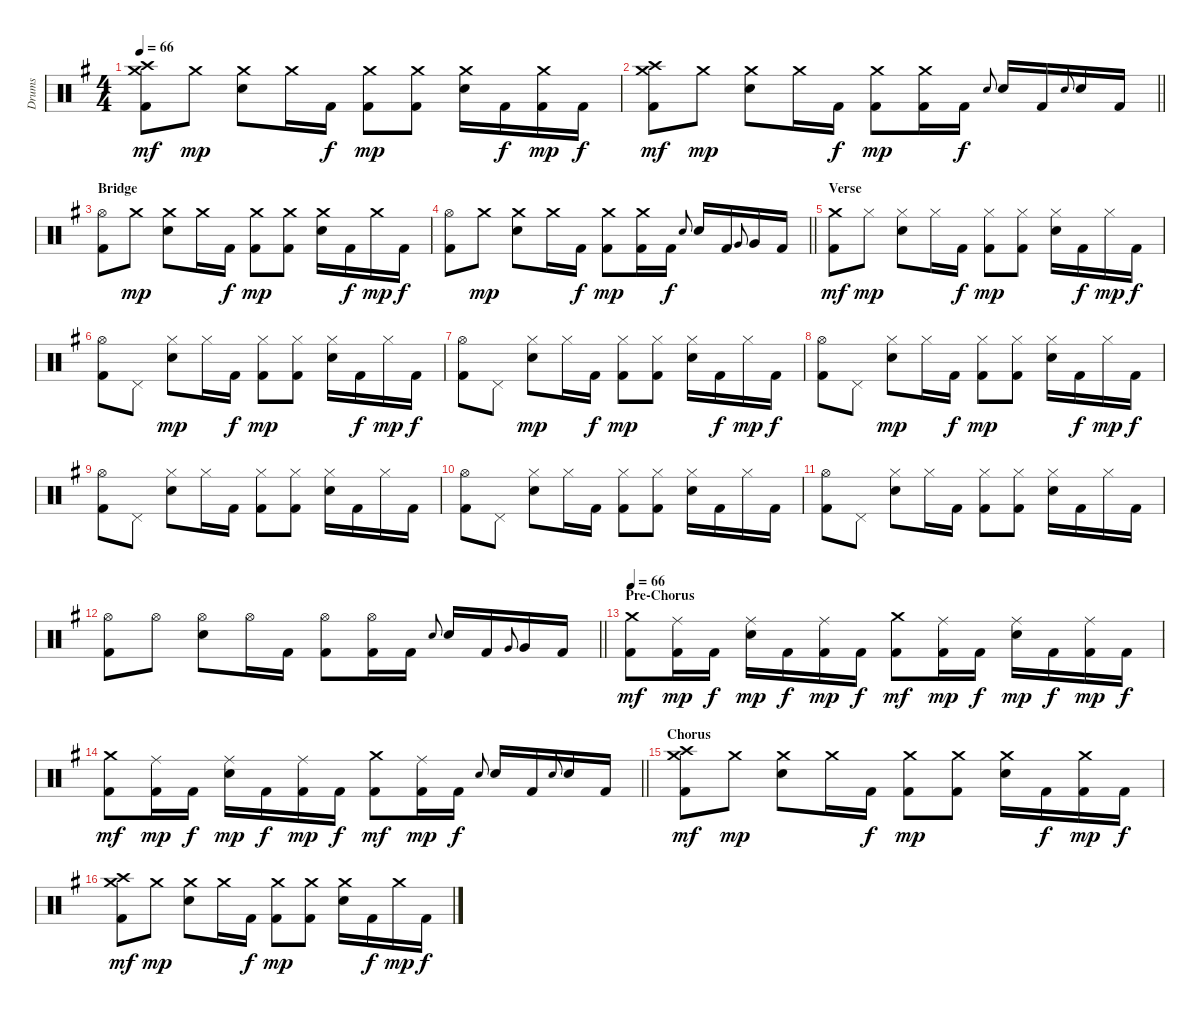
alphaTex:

\track ("Drums" "Drums") {instrument percussion}
\staff {score}
\articulation defaults
\ts (4 4)
\tempo 66
\clef neutral
\ks g
("Crash high (hit)" "Crash medium (hit)" "Kick (hit) 2").8{dy mf} "Crash medium (hit)".8{dy mp} ("Crash medium (hit)" "Electric Snare (hit)").8 "Crash medium (hit)".16 "Kick (hit) 2".16{dy f} ("Crash medium (hit)" "Kick (hit) 2").8{dy mp} ("Crash medium (hit)" "Kick (hit) 2").8 ("Crash medium (hit)" "Electric Snare (hit)").16 "Kick (hit) 2".16{dy f} ("Crash medium (hit)" "Kick (hit) 2").16{dy mp} "Kick (hit) 2".16{dy f} |
\barLineRight lightlight
("Crash high (hit)" "Crash medium (hit)" "Kick (hit) 2").8{dy mf} "Crash medium (hit)".8{dy mp} ("Crash medium (hit)" "Electric Snare (hit)").8 "Crash medium (hit)".16 "Kick (hit) 2".16{dy f} ("Crash medium (hit)" "Kick (hit) 2").8{dy mp} ("Crash medium (hit)" "Kick (hit) 2").16 "Kick (hit) 2".16{dy f} "Electric Snare (hit)".8{gr onbeat} "Electric Snare (hit)".16 "Kick (hit) 2".16 "Electric Snare (hit)".8{gr onbeat} "Electric Snare (hit)".16 "Kick (hit) 2".16 |
\section ("" "Bridge")
("Hi-Hat (open)" "Kick (hit) 2").8 "Crash medium (hit)".8{dy mp} ("Crash medium (hit)" "Electric Snare (hit)").8 "Crash medium (hit)".16 "Kick (hit) 2".16{dy f} ("Crash medium (hit)" "Kick (hit) 2").8{dy mp} ("Crash medium (hit)" "Kick (hit) 2").8 ("Crash medium (hit)" "Electric Snare (hit)").16 "Kick (hit) 2".16{dy f} "Crash medium (hit)".16{dy mp} "Kick (hit) 2".16{dy f} |
\barLineRight lightlight
("Hi-Hat (open)" "Kick (hit) 2").8 "Crash medium (hit)".8{dy mp} ("Crash medium (hit)" "Electric Snare (hit)").8 "Crash medium (hit)".16 "Kick (hit) 2".16{dy f} ("Crash medium (hit)" "Kick (hit) 2").8{dy mp} ("Crash medium (hit)" "Kick (hit) 2").16 "Kick (hit) 2".16{dy f} "Electric Snare (hit)".8{gr onbeat} "Electric Snare (hit)".16 "Kick (hit) 2".16 "Very Low Tom (hit)".8{gr onbeat} "Very Low Tom (hit)".16 "Kick (hit) 2".16 |
\section ("" "Verse")
("Crash medium (hit)" "Kick (hit) 2").8{dy mf} "Hi-Hat (closed)".8{dy mp} ("Hi-Hat (closed)" "Electric Snare (hit)").8 "Hi-Hat (closed)".16 "Kick (hit) 2".16{dy f} ("Hi-Hat (closed)" "Kick (hit) 2").8{dy mp} ("Hi-Hat (closed)" "Kick (hit) 2").8 ("Hi-Hat (closed)" "Electric Snare (hit)").16 "Kick (hit) 2".16{dy f} "Hi-Hat (closed)".16{dy mp} "Kick (hit) 2".16{dy f} |
("Hi-Hat (open)" "Kick (hit) 2").8 "Pedal Hi-Hat (hit)".8 ("Hi-Hat (closed)" "Electric Snare (hit)").8{dy mp} "Hi-Hat (closed)".16 "Kick (hit) 2".16{dy f} ("Hi-Hat (closed)" "Kick (hit) 2").8{dy mp} ("Hi-Hat (closed)" "Kick (hit) 2").8 ("Hi-Hat (closed)" "Electric Snare (hit)").16 "Kick (hit) 2".16{dy f} "Hi-Hat (closed)".16{dy mp} "Kick (hit) 2".16{dy f} |
("Hi-Hat (open)" "Kick (hit) 2").8 "Pedal Hi-Hat (hit)".8 ("Hi-Hat (closed)" "Electric Snare (hit)").8{dy mp} "Hi-Hat (closed)".16 "Kick (hit) 2".16{dy f} ("Hi-Hat (closed)" "Kick (hit) 2").8{dy mp} ("Hi-Hat (closed)" "Kick (hit) 2").8 ("Hi-Hat (closed)" "Electric Snare (hit)").16 "Kick (hit) 2".16{dy f} "Hi-Hat (closed)".16{dy mp} "Kick (hit) 2".16{dy f} |
("Hi-Hat (open)" "Kick (hit) 2").8 "Pedal Hi-Hat (hit)".8 ("Hi-Hat (closed)" "Electric Snare (hit)").8{dy mp} "Hi-Hat (closed)".16 "Kick (hit) 2".16{dy f} ("Hi-Hat (closed)" "Kick (hit) 2").8{dy mp} ("Hi-Hat (closed)" "Kick (hit) 2").8 ("Hi-Hat (closed)" "Electric Snare (hit)").16 "Kick (hit) 2".16{dy f} "Hi-Hat (closed)".16{dy mp} "Kick (hit) 2".16{dy f} |
("Hi-Hat (open)" "Kick (hit) 2").8 "Pedal Hi-Hat (hit)".8 ("Hi-Hat (closed)" "Electric Snare (hit)").8 "Hi-Hat (closed)".16 "Kick (hit) 2".16 ("Hi-Hat (closed)" "Kick (hit) 2").8 ("Hi-Hat (closed)" "Kick (hit) 2").8 ("Hi-Hat (closed)" "Electric Snare (hit)").16 "Kick (hit) 2".16 "Hi-Hat (closed)".16 "Kick (hit) 2".16 |
("Hi-Hat (open)" "Kick (hit) 2").8 "Pedal Hi-Hat (hit)".8 ("Hi-Hat (closed)" "Electric Snare (hit)").8 "Hi-Hat (closed)".16 "Kick (hit) 2".16 ("Hi-Hat (closed)" "Kick (hit) 2").8 ("Hi-Hat (closed)" "Kick (hit) 2").8 ("Hi-Hat (closed)" "Electric Snare (hit)").16 "Kick (hit) 2".16 "Hi-Hat (closed)".16 "Kick (hit) 2".16 |
("Hi-Hat (open)" "Kick (hit) 2").8 "Pedal Hi-Hat (hit)".8 ("Hi-Hat (closed)" "Electric Snare (hit)").8 "Hi-Hat (closed)".16 "Kick (hit) 2".16 ("Hi-Hat (closed)" "Kick (hit) 2").8 ("Hi-Hat (closed)" "Kick (hit) 2").8 ("Hi-Hat (closed)" "Electric Snare (hit)").16 "Kick (hit) 2".16 "Hi-Hat (closed)".16 "Kick (hit) 2".16 |
\barLineRight lightlight
("Hi-Hat (open)" "Kick (hit) 2").8 "Hi-Hat (open)".8 ("Hi-Hat (open)" "Electric Snare (hit)").8 "Hi-Hat (open)".16 "Kick (hit) 2".16 ("Hi-Hat (open)" "Kick (hit) 2").8 ("Hi-Hat (open)" "Kick (hit) 2").16 "Kick (hit) 2".16 "Electric Snare (hit)".8{gr onbeat} "Electric Snare (hit)".16 "Kick (hit) 2".16 "Very Low Tom (hit)".8{gr onbeat} "Very Low Tom (hit)".16 "Kick (hit) 2".16 |
\section ("" "Pre-Chorus")
\tempo 66
("Crash medium (hit)" "Kick (hit) 2").8{dy mf} ("Ride (middle)" "Kick (hit) 2").16{dy mp} "Kick (hit) 2".16{dy f} ("Ride (middle)" "Electric Snare (hit)").16{dy mp} "Kick (hit) 2".16{dy f} ("Ride (middle)" "Kick (hit) 2").16{dy mp} "Kick (hit) 2".16{dy f} ("Crash medium (hit)" "Kick (hit) 2").8{dy mf} ("Ride (middle)" "Kick (hit) 2").16{dy mp} "Kick (hit) 2".16{dy f} ("Ride (middle)" "Electric Snare (hit)").16{dy mp} "Kick (hit) 2".16{dy f} ("Ride (middle)" "Kick (hit) 2").16{dy mp} "Kick (hit) 2".16{dy f} |
\barLineRight lightlight
("Crash medium (hit)" "Kick (hit) 2").8{dy mf} ("Ride (middle)" "Kick (hit) 2").16{dy mp} "Kick (hit) 2".16{dy f} ("Ride (middle)" "Electric Snare (hit)").16{dy mp} "Kick (hit) 2".16{dy f} ("Ride (middle)" "Kick (hit) 2").16{dy mp} "Kick (hit) 2".16{dy f} ("Crash medium (hit)" "Kick (hit) 2").8{dy mf} ("Ride (middle)" "Kick (hit) 2").16{dy mp} "Kick (hit) 2".16{dy f} "Electric Snare (hit)".8{gr onbeat} "Electric Snare (hit)".16 "Kick (hit) 2".16 "Electric Snare (hit)".8{gr onbeat} "Electric Snare (hit)".16 "Kick (hit) 2".16 |
\section ("" "Chorus")
("Crash high (hit)" "Crash medium (hit)" "Kick (hit) 2").8{dy mf} "Crash medium (hit)".8{dy mp} ("Crash medium (hit)" "Electric Snare (hit)").8 "Crash medium (hit)".16 "Kick (hit) 2".16{dy f} ("Crash medium (hit)" "Kick (hit) 2").8{dy mp} ("Crash medium (hit)" "Kick (hit) 2").8 ("Crash medium (hit)" "Electric Snare (hit)").16 "Kick (hit) 2".16{dy f} ("Crash medium (hit)" "Kick (hit) 2").16{dy mp} "Kick (hit) 2".16{dy f} |
("Crash high (hit)" "Crash medium (hit)" "Kick (hit) 2").8{dy mf} "Crash medium (hit)".8{dy mp} ("Crash medium (hit)" "Electric Snare (hit)").8 "Crash medium (hit)".16 "Kick (hit) 2".16{dy f} ("Crash medium (hit)" "Kick (hit) 2").8{dy mp} ("Crash medium (hit)" "Kick (hit) 2").8 ("Crash medium (hit)" "Electric Snare (hit)").16 "Kick (hit) 2".16{dy f} "Crash medium (hit)".16{dy mp} "Kick (hit) 2".16{dy f}
